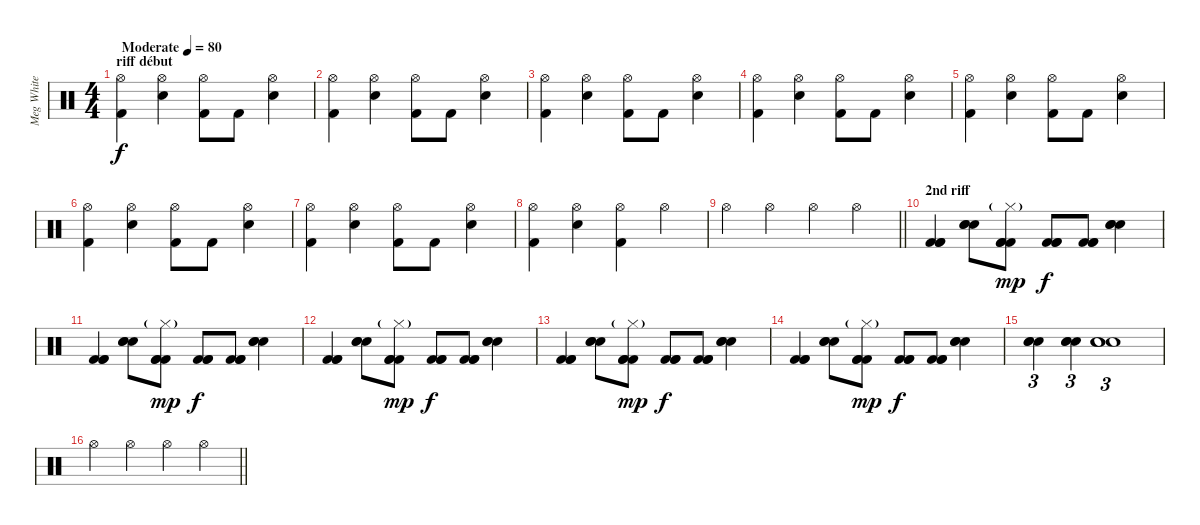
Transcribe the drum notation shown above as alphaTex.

\track ("Meg White" "Meg White") {instrument percussion}
\staff {score}
\articulation defaults
\ts (4 4)
\section ("" "riff début")
\tempo (80 "Moderate")
\clef neutral
\ks c
("Hi-Hat (open)" "Kick (hit) 2").4{dy f} ("Hi-Hat (open)" "Electric Snare (hit)").4 ("Hi-Hat (open)" "Kick (hit) 2").8 "Kick (hit) 2".8 ("Hi-Hat (open)" "Electric Snare (hit)").4 |
("Hi-Hat (open)" "Kick (hit) 2").4 ("Hi-Hat (open)" "Electric Snare (hit)").4 ("Hi-Hat (open)" "Kick (hit) 2").8 "Kick (hit) 2".8 ("Hi-Hat (open)" "Electric Snare (hit)").4 |
("Hi-Hat (open)" "Kick (hit) 2").4 ("Hi-Hat (open)" "Electric Snare (hit)").4 ("Hi-Hat (open)" "Kick (hit) 2").8 "Kick (hit) 2".8 ("Hi-Hat (open)" "Electric Snare (hit)").4 |
("Hi-Hat (open)" "Kick (hit) 2").4 ("Hi-Hat (open)" "Electric Snare (hit)").4 ("Hi-Hat (open)" "Kick (hit) 2").8 "Kick (hit) 2".8 ("Hi-Hat (open)" "Electric Snare (hit)").4 |
("Hi-Hat (open)" "Kick (hit) 2").4 ("Hi-Hat (open)" "Electric Snare (hit)").4 ("Hi-Hat (open)" "Kick (hit) 2").8 "Kick (hit) 2".8 ("Hi-Hat (open)" "Electric Snare (hit)").4 |
("Hi-Hat (open)" "Kick (hit) 2").4 ("Hi-Hat (open)" "Electric Snare (hit)").4 ("Hi-Hat (open)" "Kick (hit) 2").8 "Kick (hit) 2".8 ("Hi-Hat (open)" "Electric Snare (hit)").4 |
("Hi-Hat (open)" "Kick (hit) 2").4 ("Hi-Hat (open)" "Electric Snare (hit)").4 ("Hi-Hat (open)" "Kick (hit) 2").8 "Kick (hit) 2".8 ("Hi-Hat (open)" "Electric Snare (hit)").4 |
("Hi-Hat (open)" "Kick (hit) 2").4 ("Hi-Hat (open)" "Electric Snare (hit)").4 ("Hi-Hat (open)" "Kick (hit) 2").4 "Hi-Hat (open)".4 |
\barLineRight lightlight "Hi-Hat (open)".4 "Hi-Hat (open)".4 "Hi-Hat (open)".4 "Hi-Hat (open)".4
|
\section ("" "2nd riff")
("Kick (hit) 2" "Kick (hit) 2" "Kick (hit) 2").4 ("Electric Snare (hit)" "Electric Snare (hit)" "Electric Snare (hit)").8 ("Hi-Hat (closed)"{g} "Kick (hit) 2" "Kick (hit) 2" "Kick (hit) 2").8{dy mp} ("Kick (hit) 2" "Kick (hit) 2" "Kick (hit) 2").8{dy f} ("Kick (hit) 2" "Kick (hit) 2" "Kick (hit) 2").8 ("Electric Snare (hit)" "Electric Snare (hit)" "Electric Snare (hit)").4 |
("Kick (hit) 2" "Kick (hit) 2" "Kick (hit) 2").4 ("Electric Snare (hit)" "Electric Snare (hit)" "Electric Snare (hit)").8 ("Hi-Hat (closed)"{g} "Kick (hit) 2" "Kick (hit) 2" "Kick (hit) 2").8{dy mp} ("Kick (hit) 2" "Kick (hit) 2" "Kick (hit) 2").8{dy f} ("Kick (hit) 2" "Kick (hit) 2" "Kick (hit) 2").8 ("Electric Snare (hit)" "Electric Snare (hit)" "Electric Snare (hit)").4 |
("Kick (hit) 2" "Kick (hit) 2" "Kick (hit) 2").4 ("Electric Snare (hit)" "Electric Snare (hit)" "Electric Snare (hit)").8 ("Hi-Hat (closed)"{g} "Kick (hit) 2" "Kick (hit) 2" "Kick (hit) 2").8{dy mp} ("Kick (hit) 2" "Kick (hit) 2" "Kick (hit) 2").8{dy f} ("Kick (hit) 2" "Kick (hit) 2" "Kick (hit) 2").8 ("Electric Snare (hit)" "Electric Snare (hit)" "Electric Snare (hit)").4 |
("Kick (hit) 2" "Kick (hit) 2" "Kick (hit) 2").4 ("Electric Snare (hit)" "Electric Snare (hit)" "Electric Snare (hit)").8 ("Hi-Hat (closed)"{g} "Kick (hit) 2" "Kick (hit) 2" "Kick (hit) 2").8{dy mp} ("Kick (hit) 2" "Kick (hit) 2" "Kick (hit) 2").8{dy f} ("Kick (hit) 2" "Kick (hit) 2" "Kick (hit) 2").8 ("Electric Snare (hit)" "Electric Snare (hit)" "Electric Snare (hit)").4 |
("Kick (hit) 2" "Kick (hit) 2" "Kick (hit) 2").4 ("Electric Snare (hit)" "Electric Snare (hit)" "Electric Snare (hit)").8 ("Hi-Hat (closed)"{g} "Kick (hit) 2" "Kick (hit) 2" "Kick (hit) 2").8{dy mp} ("Kick (hit) 2" "Kick (hit) 2" "Kick (hit) 2").8{dy f} ("Kick (hit) 2" "Kick (hit) 2" "Kick (hit) 2").8 ("Electric Snare (hit)" "Electric Snare (hit)" "Electric Snare (hit)").4 |
("Electric Snare (hit)" "Electric Snare (hit)" "Electric Snare (hit)").4{tu (3 2)} ("Electric Snare (hit)" "Electric Snare (hit)" "Electric Snare (hit)").4{tu (3 2)} ("Electric Snare (hit)" "Electric Snare (hit)" "Electric Snare (hit)").1{tu (3 2)} |
\barLineRight lightlight "Hi-Hat (open)".4 "Hi-Hat (open)".4 "Hi-Hat (open)".4 "Hi-Hat (open)".4
